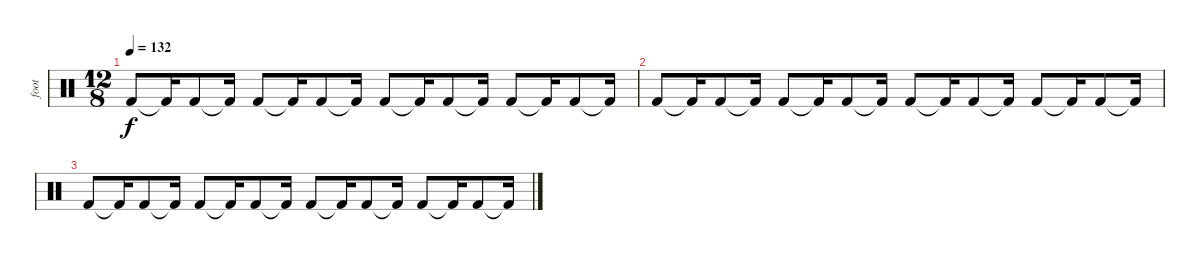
\track ("foot" "foot") {instrument percussion}
\staff {score}
\articulation defaults
\ts (12 8)
\tempo 132
\clef neutral
\ks c "Kick (hit) 2".8{dy f} "Kick (hit) 2"{t}.16 "Kick (hit) 2".8 "Kick (hit) 2"{t}.16 "Kick (hit) 2".8 "Kick (hit) 2"{t}.16 "Kick (hit) 2".8 "Kick (hit) 2"{t}.16 "Kick (hit) 2".8 "Kick (hit) 2"{t}.16 "Kick (hit) 2".8 "Kick (hit) 2"{t}.16 "Kick (hit) 2".8 "Kick (hit) 2"{t}.16 "Kick (hit) 2".8 "Kick (hit) 2"{t}.16
|
"Kick (hit) 2".8 "Kick (hit) 2"{t}.16 "Kick (hit) 2".8 "Kick (hit) 2"{t}.16 "Kick (hit) 2".8 "Kick (hit) 2"{t}.16 "Kick (hit) 2".8 "Kick (hit) 2"{t}.16 "Kick (hit) 2".8 "Kick (hit) 2"{t}.16 "Kick (hit) 2".8 "Kick (hit) 2"{t}.16 "Kick (hit) 2".8 "Kick (hit) 2"{t}.16 "Kick (hit) 2".8 "Kick (hit) 2"{t}.16 |
"Kick (hit) 2".8 "Kick (hit) 2"{t}.16 "Kick (hit) 2".8 "Kick (hit) 2"{t}.16 "Kick (hit) 2".8 "Kick (hit) 2"{t}.16 "Kick (hit) 2".8 "Kick (hit) 2"{t}.16 "Kick (hit) 2".8 "Kick (hit) 2"{t}.16 "Kick (hit) 2".8 "Kick (hit) 2"{t}.16 "Kick (hit) 2".8 "Kick (hit) 2"{t}.16 "Kick (hit) 2".8 "Kick (hit) 2"{t}.16
